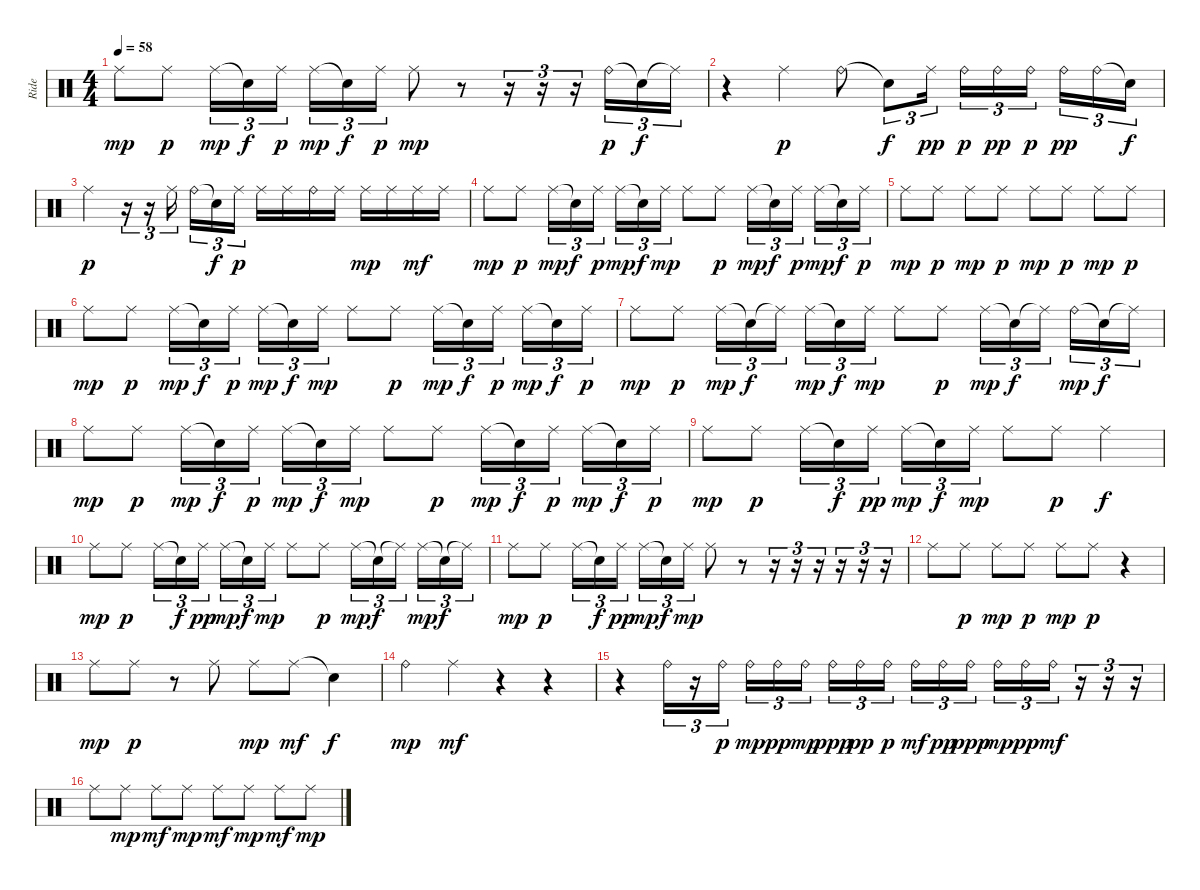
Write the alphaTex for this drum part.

\track ("Ride" "Ride") {instrument percussion}
\staff {score}
\articulation defaults
\ts (4 4)
\tempo 58
\clef neutral
\ks c "Ride (middle)".8{dy mp} "Ride (middle)".8{dy p} "Ride (middle)".16{tu (3 2) dy mp} "Snare (hit)"{t}.16{tu (3 2) dy f} "Ride (middle)".16{tu (3 2) dy p} "Ride (middle)".16{tu (3 2) dy mp} "Snare (hit)"{t}.16{tu (3 2) dy f} "Ride (middle)".16{tu (3 2) dy p} "Ride (middle)".8{dy mp}
r.8 r.16{tu (3 2)} r.16{tu (3 2)} r.16{tu (3 2)} "Ride (bell)".16{tu (3 2) dy p} "Snare (hit)"{t}.16{tu (3 2) dy f} "Ride (middle)"{t}.16{tu (3 2)} |
r.4 "Ride (middle)".4{dy p} "Ride (bell)".8 "Snare (hit)"{t}.8{tu (3 2) dy f} "Ride (middle)".16{tu (3 2) dy pp} "Ride (bell)".16{tu (3 2) dy p} "Ride (bell)".16{tu (3 2) dy pp} "Ride (bell)".16{tu (3 2) dy p} "Ride (bell)".16{tu (3 2) dy pp} "Ride (bell)".16{tu (3 2)} "Snare (hit)"{t}.16{tu (3 2) dy f} |
"Ride (middle)".4{dy p} r.16{tu (3 2)} r.16{tu (3 2)} "Ride (middle)".16{tu (3 2)} "Ride (bell)".16{tu (3 2)} "Snare (hit)"{t}.16{tu (3 2) dy f} "Ride (middle)".16{tu (3 2) dy p} "Ride (middle)".16 "Ride (middle)".16 "Ride (bell)".16 "Ride (middle)".16 "Ride (middle)".16{dy mp} "Ride (middle)".16 "Ride (middle)".16{dy mf} "Ride (middle)".16 |
"Ride (middle)".8{dy mp} "Ride (middle)".8{dy p} "Ride (middle)".16{tu (3 2) dy mp} "Snare (hit)"{t}.16{tu (3 2) dy f} "Ride (middle)".16{tu (3 2) dy p} "Ride (middle)".16{tu (3 2) dy mp} "Snare (hit)"{t}.16{tu (3 2) dy f} "Ride (middle)".16{tu (3 2) dy mp} "Ride (middle)".8 "Ride (middle)".8{dy p} "Ride (middle)".16{tu (3 2) dy mp} "Snare (hit)"{t}.16{tu (3 2) dy f} "Ride (middle)".16{tu (3 2) dy p} "Ride (middle)".16{tu (3 2) dy mp} "Snare (hit)"{t}.16{tu (3 2) dy f} "Ride (middle)".16{tu (3 2) dy p} |
"Ride (middle)".8{dy mp} "Ride (middle)".8{dy p} "Ride (middle)".8{dy mp} "Ride (middle)".8{dy p} "Ride (middle)".8{dy mp} "Ride (middle)".8{dy p} "Ride (middle)".8{dy mp} "Ride (middle)".8{dy p} |
"Ride (middle)".8{dy mp} "Ride (middle)".8{dy p} "Ride (middle)".16{tu (3 2) dy mp} "Snare (hit)"{t}.16{tu (3 2) dy f} "Ride (middle)".16{tu (3 2) dy p} "Ride (middle)".16{tu (3 2) dy mp} "Snare (hit)"{t}.16{tu (3 2) dy f} "Ride (middle)".16{tu (3 2) dy mp} "Ride (middle)".8 "Ride (middle)".8{dy p} "Ride (middle)".16{tu (3 2) dy mp} "Snare (hit)"{t}.16{tu (3 2) dy f} "Ride (middle)".16{tu (3 2) dy p} "Ride (middle)".16{tu (3 2) dy mp} "Snare (hit)"{t}.16{tu (3 2) dy f} "Ride (middle)".16{tu (3 2) dy p} |
"Ride (middle)".8{dy mp} "Ride (middle)".8{dy p} "Ride (middle)".16{tu (3 2) dy mp} "Snare (hit)"{t}.16{tu (3 2) dy f} "Ride (middle)"{t}.16{tu (3 2)} "Ride (middle)".16{tu (3 2) dy mp} "Snare (hit)"{t}.16{tu (3 2) dy f} "Ride (middle)".16{tu (3 2) dy mp} "Ride (middle)".8 "Ride (middle)".8{dy p} "Ride (middle)".16{tu (3 2) dy mp} "Snare (hit)"{t}.16{tu (3 2) dy f} "Ride (middle)"{t}.16{tu (3 2)} "Ride (bell)".16{tu (3 2) dy mp} "Snare (hit)"{t}.16{tu (3 2) dy f} "Ride (middle)"{t}.16{tu (3 2)} |
"Ride (middle)".8{dy mp} "Ride (middle)".8{dy p} "Ride (middle)".16{tu (3 2) dy mp} "Snare (hit)"{t}.16{tu (3 2) dy f} "Ride (middle)".16{tu (3 2) dy p} "Ride (middle)".16{tu (3 2) dy mp} "Snare (hit)"{t}.16{tu (3 2) dy f} "Ride (middle)".16{tu (3 2) dy mp} "Ride (middle)".8 "Ride (middle)".8{dy p} "Ride (middle)".16{tu (3 2) dy mp} "Snare (hit)"{t}.16{tu (3 2) dy f} "Ride (middle)".16{tu (3 2) dy p} "Ride (middle)".16{tu (3 2) dy mp} "Snare (hit)"{t}.16{tu (3 2) dy f} "Ride (middle)".16{tu (3 2) dy p} |
"Ride (middle)".8{dy mp} "Ride (middle)".8{dy p} "Ride (middle)".16{tu (3 2)} "Snare (hit)"{t}.16{tu (3 2) dy f} "Ride (middle)".16{tu (3 2) dy pp} "Ride (middle)".16{tu (3 2) dy mp} "Snare (hit)"{t}.16{tu (3 2) dy f} "Ride (middle)".16{tu (3 2) dy mp} "Ride (middle)".8 "Ride (middle)".8{dy p} "Ride (middle)".4{dy f} |
"Ride (middle)".8{dy mp} "Ride (middle)".8{dy p} "Ride (middle)".16{tu (3 2)} "Snare (hit)"{t}.16{tu (3 2) dy f} "Ride (middle)".16{tu (3 2) dy pp} "Ride (middle)".16{tu (3 2) dy mp} "Snare (hit)"{t}.16{tu (3 2) dy f} "Ride (middle)".16{tu (3 2) dy mp} "Ride (middle)".8 "Ride (middle)".8{dy p} "Ride (middle)".16{tu (3 2) dy mp} "Snare (hit)"{t}.16{tu (3 2) dy f} "Ride (middle)"{t}.16{tu (3 2)} "Ride (middle)".16{tu (3 2) dy mp} "Snare (hit)"{t}.16{tu (3 2) dy f} "Ride (middle)"{t}.16{tu (3 2)} |
"Ride (middle)".8{dy mp} "Ride (middle)".8{dy p} "Ride (middle)".16{tu (3 2)} "Snare (hit)"{t}.16{tu (3 2) dy f} "Ride (middle)".16{tu (3 2) dy pp} "Ride (middle)".16{tu (3 2) dy mp} "Snare (hit)"{t}.16{tu (3 2) dy f} "Ride (middle)".16{tu (3 2) dy mp} "Ride (middle)".8 r.8 r.16{tu (3 2)} r.16{tu (3 2)} r.16{tu (3 2)} r.16{tu (3 2)} r.16{tu (3 2)} r.16{tu (3 2)} |
"Ride (middle)".8 "Ride (middle)".8{dy p} "Ride (middle)".8{dy mp} "Ride (middle)".8{dy p} "Ride (middle)".8{dy mp} "Ride (middle)".8{dy p} r.4 |
"Ride (middle)".8{dy mp} "Ride (middle)".8{dy p} r.8 "Ride (middle)".8 "Ride (middle)".8{dy mp} "Ride (middle)".8{dy mf} "Snare (hit)"{t}.4{dy f} |
"Ride (bell)".4{dy mp} "Ride (middle)".4{dy mf} r.4 r.4 |
r.4 "Ride (bell)".16{tu (3 2)} r.16{tu (3 2)} "Ride (bell)".16{tu (3 2) dy p} "Ride (bell)".16{tu (3 2) dy mp} "Ride (bell)".16{tu (3 2) dy pp} "Ride (bell)".16{tu (3 2) dy mp} "Ride (bell)".16{tu (3 2) dy ppp} "Ride (bell)".16{tu (3 2) dy pp} "Ride (bell)".16{tu (3 2) dy p} "Ride (bell)".16{tu (3 2) dy mf} "Ride (bell)".16{tu (3 2) dy pp} "Ride (bell)".16{tu (3 2) dy ppp} "Ride (bell)".16{tu (3 2) dy mp} "Ride (bell)".16{tu (3 2) dy pp} "Ride (bell)".16{tu (3 2) dy mf} r.16{tu (3 2)} r.16{tu (3 2)} r.16{tu (3 2)} |
"Ride (middle)".8 "Ride (middle)".8{dy mp} "Ride (middle)".8{dy mf} "Ride (middle)".8{dy mp} "Ride (middle)".8{dy mf} "Ride (middle)".8{dy mp} "Ride (middle)".8{dy mf} "Ride (middle)".8{dy mp}
